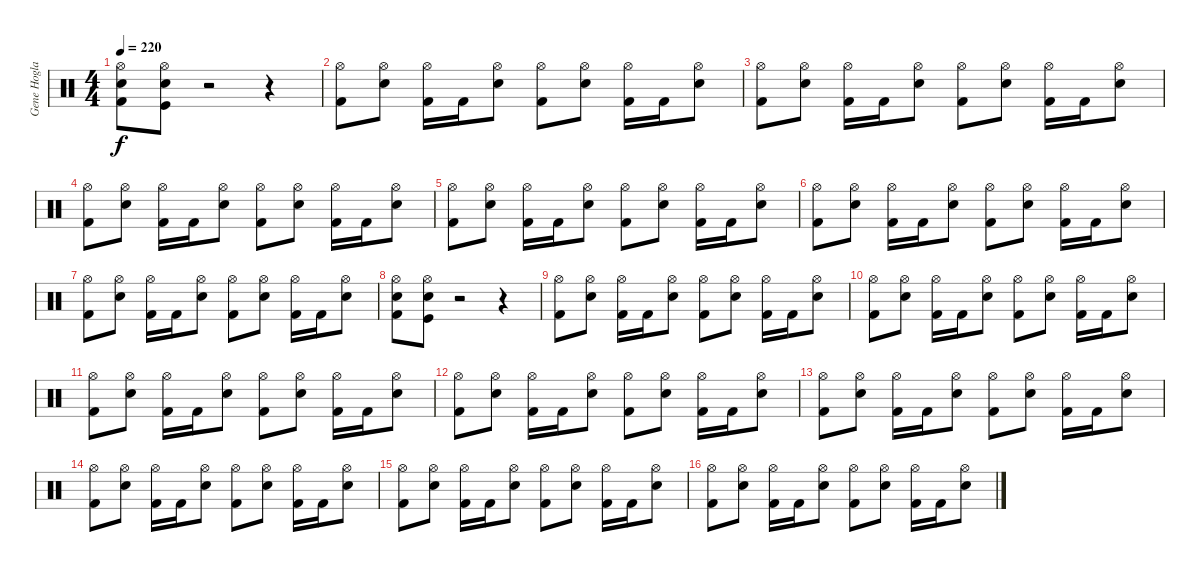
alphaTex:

\track ("Gene Hoglan" "Gene Hogla") {instrument percussion}
\staff {score}
\articulation defaults
\ts (4 4)
\tempo 220
\clef neutral
\ks c
("Hi-Hat (open)" "Electric Snare (hit)" "Kick (hit) 2").8{dy f} ("Hi-Hat (open)" "Electric Snare (hit)" "Kick (hit)").8 r.2 r.4 |
("Hi-Hat (open)" "Kick (hit) 2").8 ("Hi-Hat (open)" "Electric Snare (hit)").8 ("Hi-Hat (open)" "Kick (hit) 2").16 "Kick (hit) 2".16 ("Hi-Hat (open)" "Electric Snare (hit)").8 ("Hi-Hat (open)" "Kick (hit) 2").8 ("Hi-Hat (open)" "Electric Snare (hit)").8 ("Hi-Hat (open)" "Kick (hit) 2").16 "Kick (hit) 2".16 ("Hi-Hat (open)" "Electric Snare (hit)").8 |
("Hi-Hat (open)" "Kick (hit) 2").8 ("Hi-Hat (open)" "Electric Snare (hit)").8 ("Hi-Hat (open)" "Kick (hit) 2").16 "Kick (hit) 2".16 ("Hi-Hat (open)" "Electric Snare (hit)").8 ("Hi-Hat (open)" "Kick (hit) 2").8 ("Hi-Hat (open)" "Electric Snare (hit)").8 ("Hi-Hat (open)" "Kick (hit) 2").16 "Kick (hit) 2".16 ("Hi-Hat (open)" "Electric Snare (hit)").8 |
("Hi-Hat (open)" "Kick (hit) 2").8 ("Hi-Hat (open)" "Electric Snare (hit)").8 ("Hi-Hat (open)" "Kick (hit) 2").16 "Kick (hit) 2".16 ("Hi-Hat (open)" "Electric Snare (hit)").8 ("Hi-Hat (open)" "Kick (hit) 2").8 ("Hi-Hat (open)" "Electric Snare (hit)").8 ("Hi-Hat (open)" "Kick (hit) 2").16 "Kick (hit) 2".16 ("Hi-Hat (open)" "Electric Snare (hit)").8 |
("Hi-Hat (open)" "Kick (hit) 2").8 ("Hi-Hat (open)" "Electric Snare (hit)").8 ("Hi-Hat (open)" "Kick (hit) 2").16 "Kick (hit) 2".16 ("Hi-Hat (open)" "Electric Snare (hit)").8 ("Hi-Hat (open)" "Kick (hit) 2").8 ("Hi-Hat (open)" "Electric Snare (hit)").8 ("Hi-Hat (open)" "Kick (hit) 2").16 "Kick (hit) 2".16 ("Hi-Hat (open)" "Electric Snare (hit)").8 |
("Hi-Hat (open)" "Kick (hit) 2").8 ("Hi-Hat (open)" "Electric Snare (hit)").8 ("Hi-Hat (open)" "Kick (hit) 2").16 "Kick (hit) 2".16 ("Hi-Hat (open)" "Electric Snare (hit)").8 ("Hi-Hat (open)" "Kick (hit) 2").8 ("Hi-Hat (open)" "Electric Snare (hit)").8 ("Hi-Hat (open)" "Kick (hit) 2").16 "Kick (hit) 2".16 ("Hi-Hat (open)" "Electric Snare (hit)").8 |
("Hi-Hat (open)" "Kick (hit) 2").8 ("Hi-Hat (open)" "Electric Snare (hit)").8 ("Hi-Hat (open)" "Kick (hit) 2").16 "Kick (hit) 2".16 ("Hi-Hat (open)" "Electric Snare (hit)").8 ("Hi-Hat (open)" "Kick (hit) 2").8 ("Hi-Hat (open)" "Electric Snare (hit)").8 ("Hi-Hat (open)" "Kick (hit) 2").16 "Kick (hit) 2".16 ("Hi-Hat (open)" "Electric Snare (hit)").8 |
("Hi-Hat (open)" "Electric Snare (hit)" "Kick (hit) 2").8 ("Hi-Hat (open)" "Electric Snare (hit)" "Kick (hit)").8 r.2 r.4 |
("Hi-Hat (open)" "Kick (hit) 2").8 ("Hi-Hat (open)" "Electric Snare (hit)").8 ("Hi-Hat (open)" "Kick (hit) 2").16 "Kick (hit) 2".16 ("Hi-Hat (open)" "Electric Snare (hit)").8 ("Hi-Hat (open)" "Kick (hit) 2").8 ("Hi-Hat (open)" "Electric Snare (hit)").8 ("Hi-Hat (open)" "Kick (hit) 2").16 "Kick (hit) 2".16 ("Hi-Hat (open)" "Electric Snare (hit)").8 |
("Hi-Hat (open)" "Kick (hit) 2").8 ("Hi-Hat (open)" "Electric Snare (hit)").8 ("Hi-Hat (open)" "Kick (hit) 2").16 "Kick (hit) 2".16 ("Hi-Hat (open)" "Electric Snare (hit)").8 ("Hi-Hat (open)" "Kick (hit) 2").8 ("Hi-Hat (open)" "Electric Snare (hit)").8 ("Hi-Hat (open)" "Kick (hit) 2").16 "Kick (hit) 2".16 ("Hi-Hat (open)" "Electric Snare (hit)").8 |
("Hi-Hat (open)" "Kick (hit) 2").8 ("Hi-Hat (open)" "Electric Snare (hit)").8 ("Hi-Hat (open)" "Kick (hit) 2").16 "Kick (hit) 2".16 ("Hi-Hat (open)" "Electric Snare (hit)").8 ("Hi-Hat (open)" "Kick (hit) 2").8 ("Hi-Hat (open)" "Electric Snare (hit)").8 ("Hi-Hat (open)" "Kick (hit) 2").16 "Kick (hit) 2".16 ("Hi-Hat (open)" "Electric Snare (hit)").8 |
("Hi-Hat (open)" "Kick (hit) 2").8 ("Hi-Hat (open)" "Electric Snare (hit)").8 ("Hi-Hat (open)" "Kick (hit) 2").16 "Kick (hit) 2".16 ("Hi-Hat (open)" "Electric Snare (hit)").8 ("Hi-Hat (open)" "Kick (hit) 2").8 ("Hi-Hat (open)" "Electric Snare (hit)").8 ("Hi-Hat (open)" "Kick (hit) 2").16 "Kick (hit) 2".16 ("Hi-Hat (open)" "Electric Snare (hit)").8 |
("Hi-Hat (open)" "Kick (hit) 2").8 ("Hi-Hat (open)" "Electric Snare (hit)").8 ("Hi-Hat (open)" "Kick (hit) 2").16 "Kick (hit) 2".16 ("Hi-Hat (open)" "Electric Snare (hit)").8 ("Hi-Hat (open)" "Kick (hit) 2").8 ("Hi-Hat (open)" "Electric Snare (hit)").8 ("Hi-Hat (open)" "Kick (hit) 2").16 "Kick (hit) 2".16 ("Hi-Hat (open)" "Electric Snare (hit)").8 |
("Hi-Hat (open)" "Kick (hit) 2").8 ("Hi-Hat (open)" "Electric Snare (hit)").8 ("Hi-Hat (open)" "Kick (hit) 2").16 "Kick (hit) 2".16 ("Hi-Hat (open)" "Electric Snare (hit)").8 ("Hi-Hat (open)" "Kick (hit) 2").8 ("Hi-Hat (open)" "Electric Snare (hit)").8 ("Hi-Hat (open)" "Kick (hit) 2").16 "Kick (hit) 2".16 ("Hi-Hat (open)" "Electric Snare (hit)").8 |
("Hi-Hat (open)" "Kick (hit) 2").8 ("Hi-Hat (open)" "Electric Snare (hit)").8 ("Hi-Hat (open)" "Kick (hit) 2").16 "Kick (hit) 2".16 ("Hi-Hat (open)" "Electric Snare (hit)").8 ("Hi-Hat (open)" "Kick (hit) 2").8 ("Hi-Hat (open)" "Electric Snare (hit)").8 ("Hi-Hat (open)" "Kick (hit) 2").16 "Kick (hit) 2".16 ("Hi-Hat (open)" "Electric Snare (hit)").8 |
("Hi-Hat (open)" "Kick (hit) 2").8 ("Hi-Hat (open)" "Electric Snare (hit)").8 ("Hi-Hat (open)" "Kick (hit) 2").16 "Kick (hit) 2".16 ("Hi-Hat (open)" "Electric Snare (hit)").8 ("Hi-Hat (open)" "Kick (hit) 2").8 ("Hi-Hat (open)" "Electric Snare (hit)").8 ("Hi-Hat (open)" "Kick (hit) 2").16 "Kick (hit) 2".16 ("Hi-Hat (open)" "Electric Snare (hit)").8
